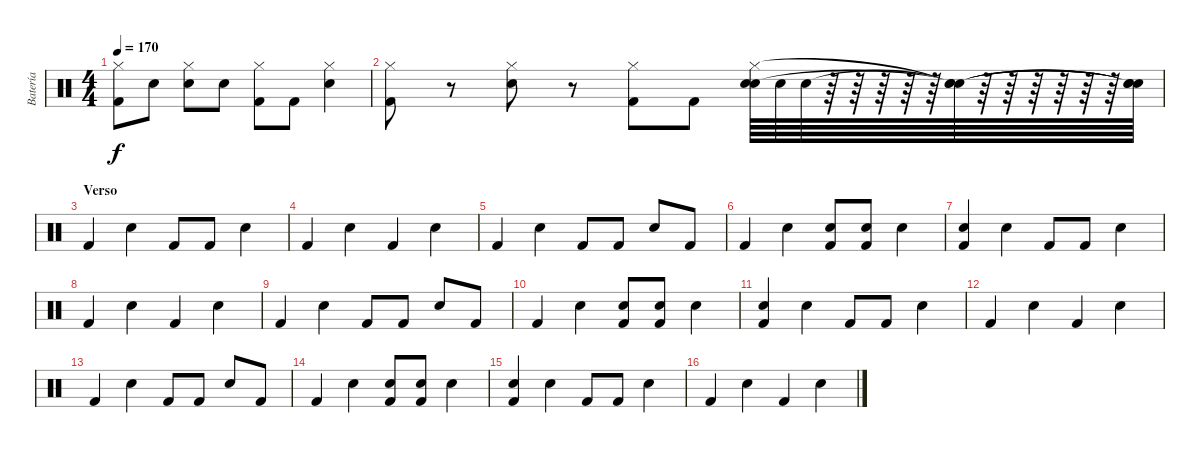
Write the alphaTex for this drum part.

\track ("Batería" "Batería") {instrument percussion}
\staff {score}
\articulation defaults
\ts (4 4)
\tempo 170
\clef neutral
\ks c
("Hi-Hat (closed)" "Kick (hit) 2").8{dy f} "Snare (hit)".8 ("Hi-Hat (closed)" "Snare (hit) 2").8 "Snare (hit)".8 ("Hi-Hat (closed)" "Kick (hit) 2").8 "Kick (hit) 2".8 ("Hi-Hat (closed)" "Snare (hit) 2").4 |
("Hi-Hat (closed)" "Kick (hit) 2").8 r.8 ("Hi-Hat (closed)" "Snare (hit) 2").8 r.8 ("Hi-Hat (closed)" "Kick (hit) 2").8 "Kick (hit) 2".8 ("Electric Snare (hit)" "Hi-Hat (closed)" "Snare (hit) 2").64 "Electric Snare (hit)".64 "Electric Snare (hit)".64 r.64 r.64 r.64 r.64 r.64 ("Snare (hit)"{t} "Snare (hit)"{t} "Snare (hit)"{t}).64 r.64 r.64 r.64 r.64 r.64 r.64 ("Snare (hit)"{t} "Snare (hit)"{t} "Snare (hit)"{t}).64 |
\section ("" "Verso")
"Kick (hit) 2".4 "Snare (hit) 2".4 "Kick (hit) 2".8 "Kick (hit) 2".8 "Snare (hit) 2".4 |
"Kick (hit) 2".4 "Snare (hit) 2".4 "Kick (hit) 2".4 "Snare (hit) 2".4 |
"Kick (hit) 2".4 "Snare (hit) 2".4 "Kick (hit) 2".8 "Kick (hit) 2".8 "Snare (hit) 2".8 "Kick (hit) 2".8 |
"Kick (hit) 2".4 "Snare (hit) 2".4 ("Kick (hit) 2" "Snare (hit)").8 ("Kick (hit) 2" "Snare (hit)").8 "Snare (hit) 2".4 |
("Kick (hit) 2" "Snare (hit)").4 "Snare (hit) 2".4 "Kick (hit) 2".8 "Kick (hit) 2".8 "Snare (hit) 2".4 |
"Kick (hit) 2".4 "Snare (hit) 2".4 "Kick (hit) 2".4 "Snare (hit) 2".4 |
"Kick (hit) 2".4 "Snare (hit) 2".4 "Kick (hit) 2".8 "Kick (hit) 2".8 "Snare (hit) 2".8 "Kick (hit) 2".8 |
"Kick (hit) 2".4 "Snare (hit) 2".4 ("Kick (hit) 2" "Snare (hit)").8 ("Kick (hit) 2" "Snare (hit)").8 "Snare (hit) 2".4 |
("Kick (hit) 2" "Snare (hit)").4 "Snare (hit) 2".4 "Kick (hit) 2".8 "Kick (hit) 2".8 "Snare (hit) 2".4 |
"Kick (hit) 2".4 "Snare (hit) 2".4 "Kick (hit) 2".4 "Snare (hit) 2".4 |
"Kick (hit) 2".4 "Snare (hit) 2".4 "Kick (hit) 2".8 "Kick (hit) 2".8 "Snare (hit) 2".8 "Kick (hit) 2".8 |
"Kick (hit) 2".4 "Snare (hit) 2".4 ("Kick (hit) 2" "Snare (hit)").8 ("Kick (hit) 2" "Snare (hit)").8 "Snare (hit) 2".4 |
("Kick (hit) 2" "Snare (hit)").4 "Snare (hit) 2".4 "Kick (hit) 2".8 "Kick (hit) 2".8 "Snare (hit) 2".4 |
"Kick (hit) 2".4 "Snare (hit) 2".4 "Kick (hit) 2".4 "Snare (hit) 2".4
